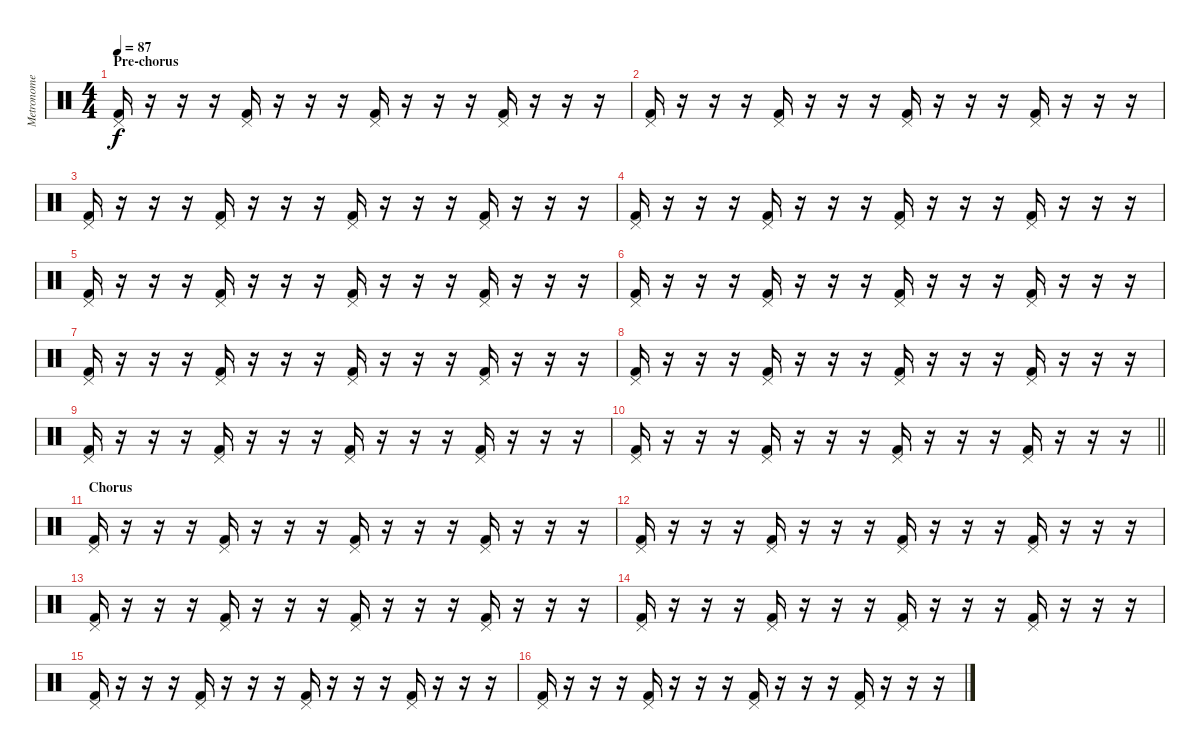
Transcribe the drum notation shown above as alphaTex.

\track ("Metronome" "Metronome") {mute instrument percussion}
\staff {score}
\articulation defaults
\ts (4 4)
\section ("" "Pre-chorus")
\tempo 87
\clef neutral
\ks c
("Pedal Hi-Hat (hit)" "Kick (hit) 2").16{dy f} r.16 r.16 r.16 ("Pedal Hi-Hat (hit)" "Kick (hit) 2").16 r.16 r.16 r.16 ("Pedal Hi-Hat (hit)" "Kick (hit) 2").16 r.16 r.16 r.16 ("Pedal Hi-Hat (hit)" "Kick (hit) 2").16 r.16 r.16 r.16 |
("Pedal Hi-Hat (hit)" "Kick (hit) 2").16 r.16 r.16 r.16 ("Pedal Hi-Hat (hit)" "Kick (hit) 2").16 r.16 r.16 r.16 ("Pedal Hi-Hat (hit)" "Kick (hit) 2").16 r.16 r.16 r.16 ("Pedal Hi-Hat (hit)" "Kick (hit) 2").16 r.16 r.16 r.16 |
("Pedal Hi-Hat (hit)" "Kick (hit) 2").16 r.16 r.16 r.16 ("Pedal Hi-Hat (hit)" "Kick (hit) 2").16 r.16 r.16 r.16 ("Pedal Hi-Hat (hit)" "Kick (hit) 2").16 r.16 r.16 r.16 ("Pedal Hi-Hat (hit)" "Kick (hit) 2").16 r.16 r.16 r.16 |
("Pedal Hi-Hat (hit)" "Kick (hit) 2").16 r.16 r.16 r.16 ("Pedal Hi-Hat (hit)" "Kick (hit) 2").16 r.16 r.16 r.16 ("Pedal Hi-Hat (hit)" "Kick (hit) 2").16 r.16 r.16 r.16 ("Pedal Hi-Hat (hit)" "Kick (hit) 2").16 r.16 r.16 r.16 |
("Pedal Hi-Hat (hit)" "Kick (hit) 2").16 r.16 r.16 r.16 ("Pedal Hi-Hat (hit)" "Kick (hit) 2").16 r.16 r.16 r.16 ("Pedal Hi-Hat (hit)" "Kick (hit) 2").16 r.16 r.16 r.16 ("Pedal Hi-Hat (hit)" "Kick (hit) 2").16 r.16 r.16 r.16 |
("Pedal Hi-Hat (hit)" "Kick (hit) 2").16 r.16 r.16 r.16 ("Pedal Hi-Hat (hit)" "Kick (hit) 2").16 r.16 r.16 r.16 ("Pedal Hi-Hat (hit)" "Kick (hit) 2").16 r.16 r.16 r.16 ("Pedal Hi-Hat (hit)" "Kick (hit) 2").16 r.16 r.16 r.16 |
("Pedal Hi-Hat (hit)" "Kick (hit) 2").16 r.16 r.16 r.16 ("Pedal Hi-Hat (hit)" "Kick (hit) 2").16 r.16 r.16 r.16 ("Pedal Hi-Hat (hit)" "Kick (hit) 2").16 r.16 r.16 r.16 ("Pedal Hi-Hat (hit)" "Kick (hit) 2").16 r.16 r.16 r.16 |
("Pedal Hi-Hat (hit)" "Kick (hit) 2").16 r.16 r.16 r.16 ("Pedal Hi-Hat (hit)" "Kick (hit) 2").16 r.16 r.16 r.16 ("Pedal Hi-Hat (hit)" "Kick (hit) 2").16 r.16 r.16 r.16 ("Pedal Hi-Hat (hit)" "Kick (hit) 2").16 r.16 r.16 r.16 |
("Pedal Hi-Hat (hit)" "Kick (hit) 2").16 r.16 r.16 r.16 ("Pedal Hi-Hat (hit)" "Kick (hit) 2").16 r.16 r.16 r.16 ("Pedal Hi-Hat (hit)" "Kick (hit) 2").16 r.16 r.16 r.16 ("Pedal Hi-Hat (hit)" "Kick (hit) 2").16 r.16 r.16 r.16 |
\barLineRight lightlight
("Pedal Hi-Hat (hit)" "Kick (hit) 2").16 r.16 r.16 r.16 ("Pedal Hi-Hat (hit)" "Kick (hit) 2").16 r.16 r.16 r.16 ("Pedal Hi-Hat (hit)" "Kick (hit) 2").16 r.16 r.16 r.16 ("Pedal Hi-Hat (hit)" "Kick (hit) 2").16 r.16 r.16 r.16 |
\section ("" "Chorus")
("Pedal Hi-Hat (hit)" "Kick (hit) 2").16 r.16 r.16 r.16 ("Pedal Hi-Hat (hit)" "Kick (hit) 2").16 r.16 r.16 r.16 ("Pedal Hi-Hat (hit)" "Kick (hit) 2").16 r.16 r.16 r.16 ("Pedal Hi-Hat (hit)" "Kick (hit) 2").16 r.16 r.16 r.16 |
("Pedal Hi-Hat (hit)" "Kick (hit) 2").16 r.16 r.16 r.16 ("Pedal Hi-Hat (hit)" "Kick (hit) 2").16 r.16 r.16 r.16 ("Pedal Hi-Hat (hit)" "Kick (hit) 2").16 r.16 r.16 r.16 ("Pedal Hi-Hat (hit)" "Kick (hit) 2").16 r.16 r.16 r.16 |
("Pedal Hi-Hat (hit)" "Kick (hit) 2").16 r.16 r.16 r.16 ("Pedal Hi-Hat (hit)" "Kick (hit) 2").16 r.16 r.16 r.16 ("Pedal Hi-Hat (hit)" "Kick (hit) 2").16 r.16 r.16 r.16 ("Pedal Hi-Hat (hit)" "Kick (hit) 2").16 r.16 r.16 r.16 |
("Pedal Hi-Hat (hit)" "Kick (hit) 2").16 r.16 r.16 r.16 ("Pedal Hi-Hat (hit)" "Kick (hit) 2").16 r.16 r.16 r.16 ("Pedal Hi-Hat (hit)" "Kick (hit) 2").16 r.16 r.16 r.16 ("Pedal Hi-Hat (hit)" "Kick (hit) 2").16 r.16 r.16 r.16 |
("Pedal Hi-Hat (hit)" "Kick (hit) 2").16 r.16 r.16 r.16 ("Pedal Hi-Hat (hit)" "Kick (hit) 2").16 r.16 r.16 r.16 ("Pedal Hi-Hat (hit)" "Kick (hit) 2").16 r.16 r.16 r.16 ("Pedal Hi-Hat (hit)" "Kick (hit) 2").16 r.16 r.16 r.16 |
("Pedal Hi-Hat (hit)" "Kick (hit) 2").16 r.16 r.16 r.16 ("Pedal Hi-Hat (hit)" "Kick (hit) 2").16 r.16 r.16 r.16 ("Pedal Hi-Hat (hit)" "Kick (hit) 2").16 r.16 r.16 r.16 ("Pedal Hi-Hat (hit)" "Kick (hit) 2").16 r.16 r.16 r.16
